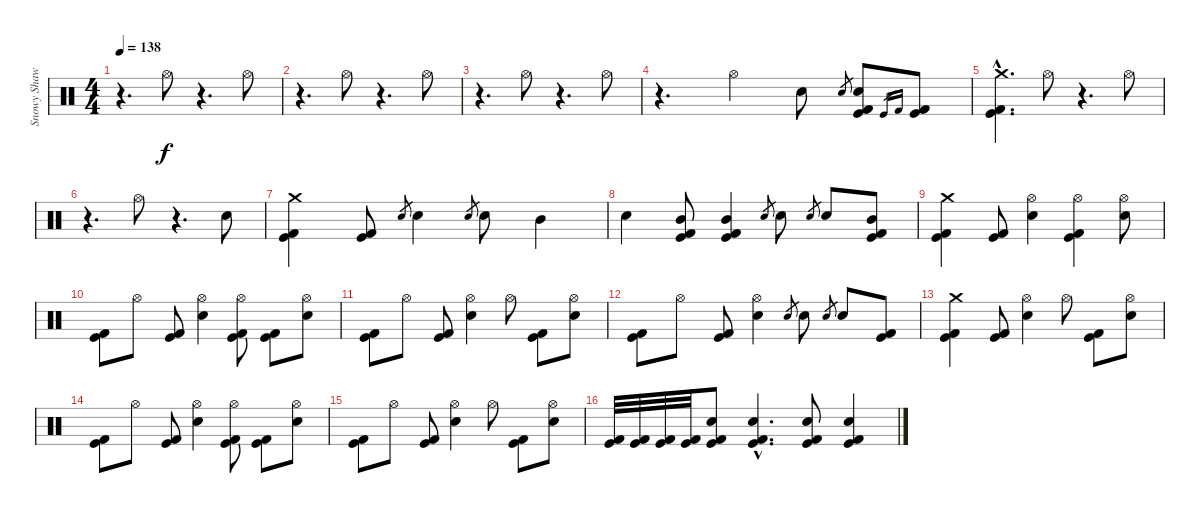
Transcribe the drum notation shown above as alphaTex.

\track ("Snowy Shaw - Drums" "Snowy Shaw") {instrument percussion}
\staff {score}
\articulation defaults
\ts (4 4)
\tempo 138
\clef neutral
\ks c
r.4{d dy f} "Hi-Hat (open)".8 r.4{d} "Hi-Hat (open)".8 |
r.4{d} "Hi-Hat (open)".8 r.4{d} "Hi-Hat (open)".8 |
r.4{d} "Hi-Hat (open)".8 r.4{d} "Hi-Hat (open)".8 |
r.4{d} "Hi-Hat (open)".4 "Electric Snare (hit)".8 "Electric Snare (hit)".8{gr} ("Electric Snare (hit)" "Kick (hit)" "Kick (hit) 2").8 "Kick (hit)".16{gr} "Kick (hit) 2".16{gr} ("Kick (hit)" "Kick (hit) 2").8 |
("Crash medium (hit)"{hac} "Kick (hit)"{hac} "Kick (hit) 2"{hac}).4{d} "Hi-Hat (open)".8 r.4{d} "Hi-Hat (open)".8 |
r.4{d} "Hi-Hat (open)".8 r.4{d} "Electric Snare (hit)".8 |
("Crash medium (hit)" "Kick (hit)" "Kick (hit) 2").4 ("Kick (hit)" "Kick (hit) 2").8 "Electric Snare (hit)".8{gr} "Electric Snare (hit)".4 "Electric Snare (hit)".8{gr} "Electric Snare (hit)".8 "Mid Tom (hit)".4 |
"Electric Snare (hit)".4 ("Mid Tom (hit)" "Kick (hit)" "Kick (hit) 2").8 ("Mid Tom (hit)" "Kick (hit)" "Kick (hit) 2").4 "Electric Snare (hit)".8{gr} "Electric Snare (hit)".8 "Electric Snare (hit)".8{gr} "Electric Snare (hit)".8 ("Mid Tom (hit)" "Kick (hit)" "Kick (hit) 2").8 |
("Crash medium (hit)" "Kick (hit)" "Kick (hit) 2").4 ("Kick (hit)" "Kick (hit) 2").8 ("Hi-Hat (open)" "Electric Snare (hit)").4 ("Hi-Hat (open)" "Kick (hit)" "Kick (hit) 2").4 ("Hi-Hat (open)" "Electric Snare (hit)").8 |
("Kick (hit)" "Kick (hit) 2").8 "Hi-Hat (open)".8 ("Kick (hit)" "Kick (hit) 2").8 ("Hi-Hat (open)" "Electric Snare (hit)").4 ("Hi-Hat (open)" "Kick (hit)" "Kick (hit) 2").8 ("Kick (hit)" "Kick (hit) 2").8 ("Hi-Hat (open)" "Electric Snare (hit)").8 |
("Kick (hit)" "Kick (hit) 2").8 "Hi-Hat (open)".8 ("Kick (hit)" "Kick (hit) 2").8 ("Hi-Hat (open)" "Electric Snare (hit)").4 "Hi-Hat (open)".8 ("Kick (hit)" "Kick (hit) 2").8 ("Hi-Hat (open)" "Electric Snare (hit)").8 |
("Kick (hit)" "Kick (hit) 2").8 "Hi-Hat (open)".8 ("Kick (hit)" "Kick (hit) 2").8 ("Hi-Hat (open)" "Electric Snare (hit)").4 "Electric Snare (hit)".8{gr} "Electric Snare (hit)".8 "Electric Snare (hit)".8{gr} "Electric Snare (hit)".8 ("Kick (hit)" "Kick (hit) 2").8 |
("Crash medium (hit)" "Kick (hit)" "Kick (hit) 2").4 ("Kick (hit)" "Kick (hit) 2").8 ("Hi-Hat (open)" "Electric Snare (hit)").4 "Hi-Hat (open)".8 ("Kick (hit)" "Kick (hit) 2").8 ("Hi-Hat (open)" "Electric Snare (hit)").8 |
("Kick (hit)" "Kick (hit) 2").8 "Hi-Hat (open)".8 ("Kick (hit)" "Kick (hit) 2").8 ("Hi-Hat (open)" "Electric Snare (hit)").4 ("Hi-Hat (open)" "Kick (hit)" "Kick (hit) 2").8 ("Kick (hit)" "Kick (hit) 2").8 ("Hi-Hat (open)" "Electric Snare (hit)").8 |
("Kick (hit)" "Kick (hit) 2").8 "Hi-Hat (open)".8 ("Kick (hit)" "Kick (hit) 2").8 ("Hi-Hat (open)" "Electric Snare (hit)").4 "Hi-Hat (open)".8 ("Kick (hit)" "Kick (hit) 2").8 ("Hi-Hat (open)" "Electric Snare (hit)").8 |
("Kick (hit)" "Kick (hit) 2").32 ("Kick (hit)" "Kick (hit) 2").32 ("Kick (hit)" "Kick (hit) 2").32 ("Kick (hit)" "Kick (hit) 2").32 ("Electric Snare (hit)" "Kick (hit)" "Kick (hit) 2").8 ("Electric Snare (hit)"{hac} "Kick (hit)"{hac} "Kick (hit) 2"{hac}).4{d} ("Electric Snare (hit)" "Kick (hit)" "Kick (hit) 2").8 ("Electric Snare (hit)" "Kick (hit)" "Kick (hit) 2").4
